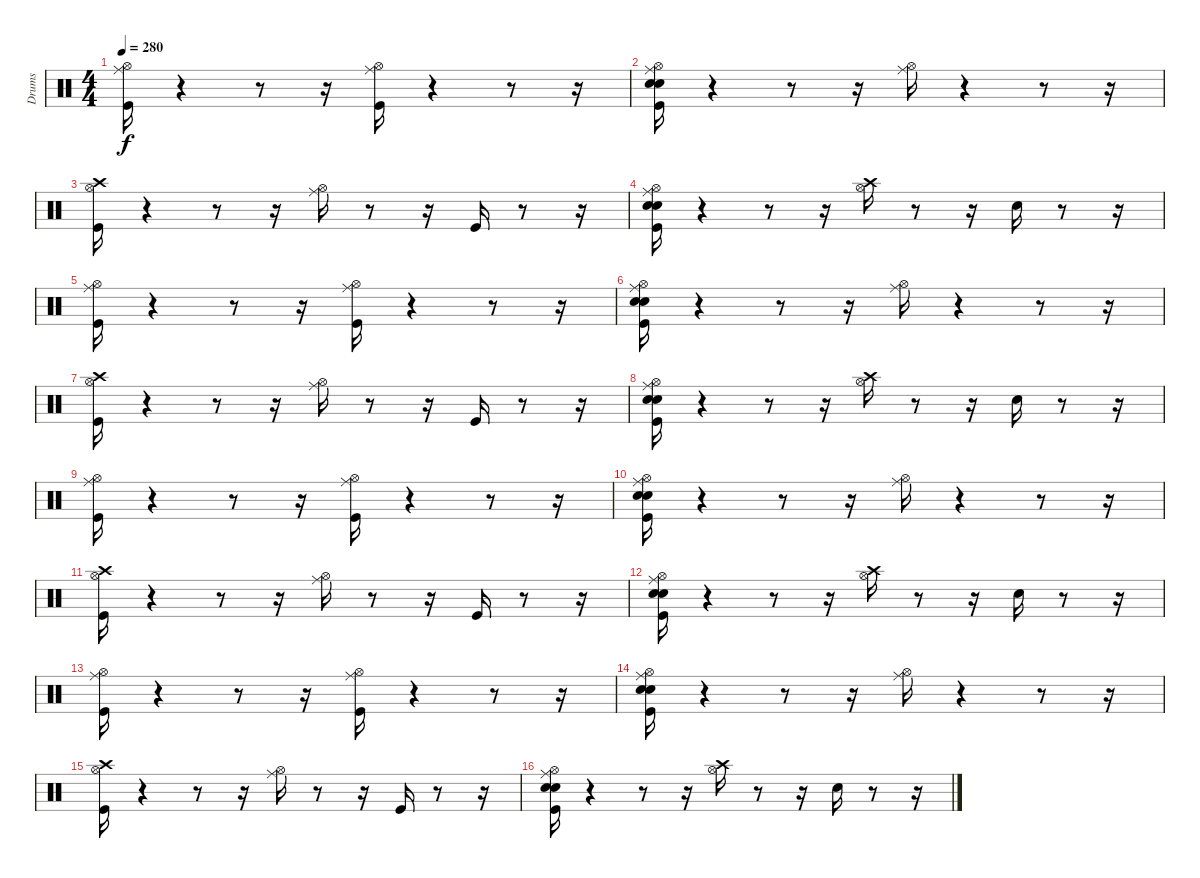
\track ("Drums" "Drums") {instrument percussion}
\staff {score}
\articulation defaults
\ts (4 4)
\tempo 280
\clef neutral
\ks c
("Hi-Hat (open)" "Kick (hit)" "Ride (middle)").16{dy f} r.4 r.8 r.16 ("Hi-Hat (open)" "Ride (middle)" "Kick (hit)").16 r.4 r.8 r.16 |
("Ride (middle)" "Hi-Hat (open)" "Kick (hit)" "Snare (hit) 2" "Electric Snare (hit)").16 r.4 r.8 r.16 ("Hi-Hat (open)" "Ride (middle)").16 r.4 r.8 r.16 |
("Crash high (hit)" "Hi-Hat (open)" "Kick (hit)").16 r.4 r.8 r.16 ("Hi-Hat (open)" "Ride (middle)").16 r.8 r.16 "Kick (hit)".16 r.8 r.16 |
("Hi-Hat (open)" "Kick (hit)" "Snare (hit) 2" "Electric Snare (hit)" "Ride (middle)").16 r.4 r.8 r.16 ("Hi-Hat (open)" "Crash high (hit)").16 r.8 r.16 "Snare (hit) 2".16 r.8 r.16 |
("Ride (middle)" "Hi-Hat (open)" "Kick (hit)").16 r.4 r.8 r.16 ("Hi-Hat (open)" "Ride (middle)" "Kick (hit)").16 r.4 r.8 r.16 |
("Ride (middle)" "Hi-Hat (open)" "Kick (hit)" "Snare (hit) 2" "Electric Snare (hit)").16 r.4 r.8 r.16 ("Hi-Hat (open)" "Ride (middle)").16 r.4 r.8 r.16 |
("Kick (hit)" "Hi-Hat (open)" "Crash high (hit)").16 r.4 r.8 r.16 ("Hi-Hat (open)" "Ride (middle)").16 r.8 r.16 "Kick (hit)".16 r.8 r.16 |
("Hi-Hat (open)" "Kick (hit)" "Snare (hit) 2" "Electric Snare (hit)" "Ride (middle)").16 r.4 r.8 r.16 ("Hi-Hat (open)" "Crash high (hit)").16 r.8 r.16 "Snare (hit) 2".16 r.8 r.16 |
("Ride (middle)" "Hi-Hat (open)" "Kick (hit)").16 r.4 r.8 r.16 ("Hi-Hat (open)" "Ride (middle)" "Kick (hit)").16 r.4 r.8 r.16 |
("Ride (middle)" "Hi-Hat (open)" "Kick (hit)" "Snare (hit) 2" "Electric Snare (hit)").16 r.4 r.8 r.16 ("Hi-Hat (open)" "Ride (middle)").16 r.4 r.8 r.16 |
("Kick (hit)" "Hi-Hat (open)" "Crash high (hit)").16 r.4 r.8 r.16 ("Hi-Hat (open)" "Ride (middle)").16 r.8 r.16 "Kick (hit)".16 r.8 r.16 |
("Hi-Hat (open)" "Kick (hit)" "Snare (hit) 2" "Electric Snare (hit)" "Ride (middle)").16 r.4 r.8 r.16 ("Hi-Hat (open)" "Crash high (hit)").16 r.8 r.16 "Snare (hit) 2".16 r.8 r.16 |
("Ride (middle)" "Hi-Hat (open)" "Kick (hit)").16 r.4 r.8 r.16 ("Hi-Hat (open)" "Ride (middle)" "Kick (hit)").16 r.4 r.8 r.16 |
("Ride (middle)" "Hi-Hat (open)" "Kick (hit)" "Snare (hit) 2" "Electric Snare (hit)").16 r.4 r.8 r.16 ("Hi-Hat (open)" "Ride (middle)").16 r.4 r.8 r.16 |
("Kick (hit)" "Hi-Hat (open)" "Crash high (hit)").16 r.4 r.8 r.16 ("Hi-Hat (open)" "Ride (middle)").16 r.8 r.16 "Kick (hit)".16 r.8 r.16 |
("Hi-Hat (open)" "Kick (hit)" "Snare (hit) 2" "Electric Snare (hit)" "Ride (middle)").16 r.4 r.8 r.16 ("Hi-Hat (open)" "Crash high (hit)").16 r.8 r.16 "Snare (hit) 2".16 r.8 r.16
